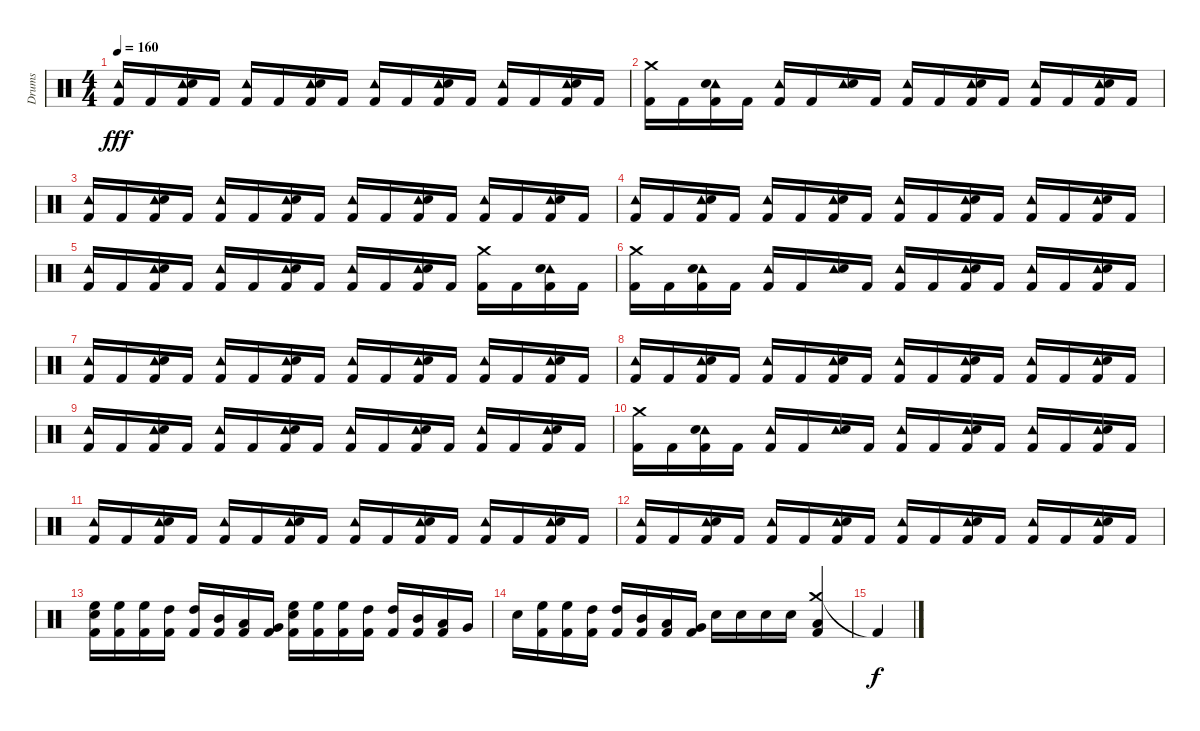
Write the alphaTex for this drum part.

\track ("Drums" "Drums") {instrument percussion}
\staff {score}
\articulation defaults
\ts (4 4)
\tempo 160
\clef neutral
\ks c
("Kick (hit) 2" "Tambourine (hit)").16{dy fff} "Kick (hit) 2".16 ("Kick (hit) 2" "Tambourine (hit)" "Electric Snare (hit)").16 "Kick (hit) 2".16 ("Kick (hit) 2" "Tambourine (hit)").16 "Kick (hit) 2".16 ("Kick (hit) 2" "Tambourine (hit)" "Electric Snare (hit)").16 "Kick (hit) 2".16 ("Kick (hit) 2" "Tambourine (hit)").16 "Kick (hit) 2".16 ("Kick (hit) 2" "Tambourine (hit)" "Electric Snare (hit)").16 "Kick (hit) 2".16 ("Kick (hit) 2" "Tambourine (hit)").16 "Kick (hit) 2".16 ("Kick (hit) 2" "Tambourine (hit)" "Electric Snare (hit)").16 "Kick (hit) 2".16 |
("Crash medium (hit)" "Kick (hit) 2").16 "Kick (hit) 2".16 ("Kick (hit) 2" "Tambourine (hit)" "Electric Snare (hit)").16 "Kick (hit) 2".16 ("Kick (hit) 2" "Tambourine (hit)").16 "Kick (hit) 2".16 ("Tambourine (hit)" "Electric Snare (hit)").16 "Kick (hit) 2".16 ("Kick (hit) 2" "Tambourine (hit)").16 "Kick (hit) 2".16 ("Kick (hit) 2" "Tambourine (hit)" "Electric Snare (hit)").16 "Kick (hit) 2".16 ("Kick (hit) 2" "Tambourine (hit)").16 "Kick (hit) 2".16 ("Kick (hit) 2" "Tambourine (hit)" "Electric Snare (hit)").16 "Kick (hit) 2".16 |
("Kick (hit) 2" "Tambourine (hit)").16 "Kick (hit) 2".16 ("Kick (hit) 2" "Tambourine (hit)" "Electric Snare (hit)").16 "Kick (hit) 2".16 ("Kick (hit) 2" "Tambourine (hit)").16 "Kick (hit) 2".16 ("Kick (hit) 2" "Tambourine (hit)" "Electric Snare (hit)").16 "Kick (hit) 2".16 ("Kick (hit) 2" "Tambourine (hit)").16 "Kick (hit) 2".16 ("Kick (hit) 2" "Tambourine (hit)" "Electric Snare (hit)").16 "Kick (hit) 2".16 ("Kick (hit) 2" "Tambourine (hit)").16 "Kick (hit) 2".16 ("Kick (hit) 2" "Tambourine (hit)" "Electric Snare (hit)").16 "Kick (hit) 2".16 |
("Kick (hit) 2" "Tambourine (hit)").16 "Kick (hit) 2".16 ("Kick (hit) 2" "Tambourine (hit)" "Electric Snare (hit)").16 "Kick (hit) 2".16 ("Kick (hit) 2" "Tambourine (hit)").16 "Kick (hit) 2".16 ("Kick (hit) 2" "Tambourine (hit)" "Electric Snare (hit)").16 "Kick (hit) 2".16 ("Kick (hit) 2" "Tambourine (hit)").16 "Kick (hit) 2".16 ("Kick (hit) 2" "Tambourine (hit)" "Electric Snare (hit)").16 "Kick (hit) 2".16 ("Kick (hit) 2" "Tambourine (hit)").16 "Kick (hit) 2".16 ("Kick (hit) 2" "Tambourine (hit)" "Electric Snare (hit)").16 "Kick (hit) 2".16 |
("Kick (hit) 2" "Tambourine (hit)").16 "Kick (hit) 2".16 ("Kick (hit) 2" "Tambourine (hit)" "Electric Snare (hit)").16 "Kick (hit) 2".16 ("Kick (hit) 2" "Tambourine (hit)").16 "Kick (hit) 2".16 ("Kick (hit) 2" "Tambourine (hit)" "Electric Snare (hit)").16 "Kick (hit) 2".16 ("Kick (hit) 2" "Tambourine (hit)").16 "Kick (hit) 2".16 ("Kick (hit) 2" "Tambourine (hit)" "Electric Snare (hit)").16 "Kick (hit) 2".16 ("Crash medium (hit)" "Kick (hit) 2").16 "Kick (hit) 2".16 ("Kick (hit) 2" "Tambourine (hit)" "Electric Snare (hit)").16 "Kick (hit) 2".16 |
("Crash medium (hit)" "Kick (hit) 2").16 "Kick (hit) 2".16 ("Kick (hit) 2" "Tambourine (hit)" "Electric Snare (hit)").16 "Kick (hit) 2".16 ("Kick (hit) 2" "Tambourine (hit)").16 "Kick (hit) 2".16 ("Tambourine (hit)" "Electric Snare (hit)").16 "Kick (hit) 2".16 ("Kick (hit) 2" "Tambourine (hit)").16 "Kick (hit) 2".16 ("Kick (hit) 2" "Tambourine (hit)" "Electric Snare (hit)").16 "Kick (hit) 2".16 ("Kick (hit) 2" "Tambourine (hit)").16 "Kick (hit) 2".16 ("Kick (hit) 2" "Tambourine (hit)" "Electric Snare (hit)").16 "Kick (hit) 2".16 |
("Kick (hit) 2" "Tambourine (hit)").16 "Kick (hit) 2".16 ("Kick (hit) 2" "Tambourine (hit)" "Electric Snare (hit)").16 "Kick (hit) 2".16 ("Kick (hit) 2" "Tambourine (hit)").16 "Kick (hit) 2".16 ("Kick (hit) 2" "Tambourine (hit)" "Electric Snare (hit)").16 "Kick (hit) 2".16 ("Kick (hit) 2" "Tambourine (hit)").16 "Kick (hit) 2".16 ("Kick (hit) 2" "Tambourine (hit)" "Electric Snare (hit)").16 "Kick (hit) 2".16 ("Kick (hit) 2" "Tambourine (hit)").16 "Kick (hit) 2".16 ("Kick (hit) 2" "Tambourine (hit)" "Electric Snare (hit)").16 "Kick (hit) 2".16 |
("Kick (hit) 2" "Tambourine (hit)").16 "Kick (hit) 2".16 ("Kick (hit) 2" "Tambourine (hit)" "Electric Snare (hit)").16 "Kick (hit) 2".16 ("Kick (hit) 2" "Tambourine (hit)").16 "Kick (hit) 2".16 ("Kick (hit) 2" "Tambourine (hit)" "Electric Snare (hit)").16 "Kick (hit) 2".16 ("Kick (hit) 2" "Tambourine (hit)").16 "Kick (hit) 2".16 ("Kick (hit) 2" "Tambourine (hit)" "Electric Snare (hit)").16 "Kick (hit) 2".16 ("Kick (hit) 2" "Tambourine (hit)").16 "Kick (hit) 2".16 ("Kick (hit) 2" "Tambourine (hit)" "Electric Snare (hit)").16 "Kick (hit) 2".16 |
("Kick (hit) 2" "Tambourine (hit)").16 "Kick (hit) 2".16 ("Kick (hit) 2" "Tambourine (hit)" "Electric Snare (hit)").16 "Kick (hit) 2".16 ("Kick (hit) 2" "Tambourine (hit)").16 "Kick (hit) 2".16 ("Kick (hit) 2" "Tambourine (hit)" "Electric Snare (hit)").16 "Kick (hit) 2".16 ("Kick (hit) 2" "Tambourine (hit)").16 "Kick (hit) 2".16 ("Kick (hit) 2" "Tambourine (hit)" "Electric Snare (hit)").16 "Kick (hit) 2".16 ("Kick (hit) 2" "Tambourine (hit)").16 "Kick (hit) 2".16 ("Kick (hit) 2" "Tambourine (hit)" "Electric Snare (hit)").16 "Kick (hit) 2".16 |
("Crash medium (hit)" "Kick (hit) 2").16 "Kick (hit) 2".16 ("Kick (hit) 2" "Tambourine (hit)" "Electric Snare (hit)").16 "Kick (hit) 2".16 ("Kick (hit) 2" "Tambourine (hit)").16 "Kick (hit) 2".16 ("Tambourine (hit)" "Electric Snare (hit)").16 "Kick (hit) 2".16 ("Kick (hit) 2" "Tambourine (hit)").16 "Kick (hit) 2".16 ("Kick (hit) 2" "Tambourine (hit)" "Electric Snare (hit)").16 "Kick (hit) 2".16 ("Kick (hit) 2" "Tambourine (hit)").16 "Kick (hit) 2".16 ("Kick (hit) 2" "Tambourine (hit)" "Electric Snare (hit)").16 "Kick (hit) 2".16 |
("Kick (hit) 2" "Tambourine (hit)").16 "Kick (hit) 2".16 ("Kick (hit) 2" "Tambourine (hit)" "Electric Snare (hit)").16 "Kick (hit) 2".16 ("Kick (hit) 2" "Tambourine (hit)").16 "Kick (hit) 2".16 ("Kick (hit) 2" "Tambourine (hit)" "Electric Snare (hit)").16 "Kick (hit) 2".16 ("Kick (hit) 2" "Tambourine (hit)").16 "Kick (hit) 2".16 ("Kick (hit) 2" "Tambourine (hit)" "Electric Snare (hit)").16 "Kick (hit) 2".16 ("Kick (hit) 2" "Tambourine (hit)").16 "Kick (hit) 2".16 ("Kick (hit) 2" "Tambourine (hit)" "Electric Snare (hit)").16 "Kick (hit) 2".16 |
("Kick (hit) 2" "Tambourine (hit)").16 "Kick (hit) 2".16 ("Kick (hit) 2" "Tambourine (hit)" "Electric Snare (hit)").16 "Kick (hit) 2".16 ("Kick (hit) 2" "Tambourine (hit)").16 "Kick (hit) 2".16 ("Kick (hit) 2" "Tambourine (hit)" "Electric Snare (hit)").16 "Kick (hit) 2".16 ("Kick (hit) 2" "Tambourine (hit)").16 "Kick (hit) 2".16 ("Kick (hit) 2" "Tambourine (hit)" "Electric Snare (hit)").16 "Kick (hit) 2".16 ("Kick (hit) 2" "Tambourine (hit)").16 "Kick (hit) 2".16 ("Kick (hit) 2" "Tambourine (hit)" "Electric Snare (hit)").16 "Kick (hit) 2".16 |
("Electric Snare (hit)" "Kick (hit) 2" "High Floor Tom (hit)").16 ("High Floor Tom (hit)" "Kick (hit) 2").16 ("High Floor Tom (hit)" "Kick (hit) 2").16 ("High Tom (hit)" "Kick (hit) 2").16 ("High Tom (hit)" "Kick (hit) 2").16 ("Mid Tom (hit)" "Kick (hit) 2").16 ("Low Tom (hit)" "Kick (hit) 2").16 ("Very Low Tom (hit)" "Kick (hit) 2").16 ("Electric Snare (hit)" "Kick (hit) 2" "High Floor Tom (hit)").16 ("High Floor Tom (hit)" "Kick (hit) 2").16 ("High Floor Tom (hit)" "Kick (hit) 2").16 ("High Tom (hit)" "Kick (hit) 2").16 ("High Tom (hit)" "Kick (hit) 2").16 ("Mid Tom (hit)" "Kick (hit) 2").16 ("Low Tom (hit)" "Kick (hit) 2").16 "Very Low Tom (hit)".16 |
"Electric Snare (hit)".16 ("High Floor Tom (hit)" "Kick (hit) 2").16 ("High Floor Tom (hit)" "Kick (hit) 2").16 ("High Tom (hit)" "Kick (hit) 2").16 ("High Tom (hit)" "Kick (hit) 2").16 ("Mid Tom (hit)" "Kick (hit) 2").16 ("Low Tom (hit)" "Kick (hit) 2").16 ("Very Low Tom (hit)" "Kick (hit) 2").16 "Electric Snare (hit)".16 "Electric Snare (hit)".16 "Electric Snare (hit)".16 "Electric Snare (hit)".16 ("Crash medium (hit)" "Low Tom (hit)" "Kick (hit) 2").4 |
"Kick (hit) 2"{t}.4{dy f}
